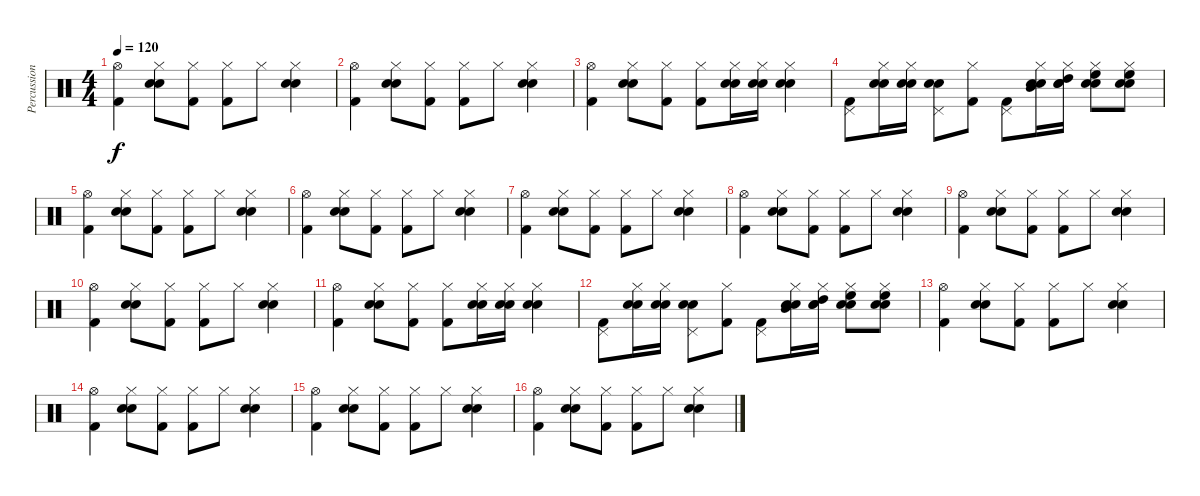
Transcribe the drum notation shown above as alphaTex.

\track ("Percussions" "Percussion") {instrument percussion}
\staff {score}
\articulation defaults
\ts (4 4)
\tempo 120
\clef neutral
\ks c
("Hi-Hat (open)" "Kick (hit) 2").4{dy f} ("Hi-Hat (closed)" "Electric Snare (hit)" "Snare (hit) 2").8 ("Hi-Hat (closed)" "Kick (hit) 2").8 ("Hi-Hat (closed)" "Kick (hit) 2").8 "Hi-Hat (closed)".8 ("Hi-Hat (closed)" "Electric Snare (hit)" "Snare (hit) 2").4 |
("Hi-Hat (open)" "Kick (hit) 2").4 ("Hi-Hat (closed)" "Electric Snare (hit)" "Snare (hit) 2").8 ("Hi-Hat (closed)" "Kick (hit) 2").8 ("Hi-Hat (closed)" "Kick (hit) 2").8 "Hi-Hat (closed)".8 ("Hi-Hat (closed)" "Electric Snare (hit)" "Snare (hit) 2").4 |
("Hi-Hat (open)" "Kick (hit) 2").4 ("Hi-Hat (closed)" "Electric Snare (hit)" "Snare (hit) 2").8 ("Hi-Hat (closed)" "Kick (hit) 2").8 ("Hi-Hat (closed)" "Kick (hit) 2").8 ("Hi-Hat (closed)" "Electric Snare (hit)" "Snare (hit) 2").16 ("Hi-Hat (closed)" "Electric Snare (hit)" "Snare (hit) 2").16 ("Hi-Hat (closed)" "Electric Snare (hit)" "Snare (hit) 2").4 |
("Pedal Hi-Hat (hit)" "Kick (hit) 2").8 ("Hi-Hat (closed)" "Electric Snare (hit)" "Snare (hit) 2").16 ("Hi-Hat (closed)" "Electric Snare (hit)" "Snare (hit) 2").16 ("Pedal Hi-Hat (hit)" "Electric Snare (hit)" "Snare (hit) 2").8 ("Hi-Hat (closed)" "Kick (hit) 2").8 ("Pedal Hi-Hat (hit)" "Kick (hit) 2").8 ("Hi-Hat (closed)" "Mid Tom (hit)" "Electric Snare (hit)" "Snare (hit) 2").16 ("Hi-Hat (closed)" "High Tom (hit)" "Electric Snare (hit)" "Snare (hit) 2").16 ("Hi-Hat (closed)" "High Floor Tom (hit)" "Electric Snare (hit)" "Snare (hit) 2").8 ("Hi-Hat (closed)" "High Floor Tom (hit)" "Electric Snare (hit)" "Snare (hit) 2").8 |
("Hi-Hat (open)" "Kick (hit) 2").4 ("Hi-Hat (closed)" "Electric Snare (hit)" "Snare (hit) 2").8 ("Hi-Hat (closed)" "Kick (hit) 2").8 ("Hi-Hat (closed)" "Kick (hit) 2").8 "Hi-Hat (closed)".8 ("Hi-Hat (closed)" "Electric Snare (hit)" "Snare (hit) 2").4 |
("Hi-Hat (open)" "Kick (hit) 2").4 ("Hi-Hat (closed)" "Electric Snare (hit)" "Snare (hit) 2").8 ("Hi-Hat (closed)" "Kick (hit) 2").8 ("Hi-Hat (closed)" "Kick (hit) 2").8 "Hi-Hat (closed)".8 ("Hi-Hat (closed)" "Electric Snare (hit)" "Snare (hit) 2").4 |
("Hi-Hat (open)" "Kick (hit) 2").4 ("Hi-Hat (closed)" "Electric Snare (hit)" "Snare (hit) 2").8 ("Hi-Hat (closed)" "Kick (hit) 2").8 ("Hi-Hat (closed)" "Kick (hit) 2").8 "Hi-Hat (closed)".8 ("Hi-Hat (closed)" "Electric Snare (hit)" "Snare (hit) 2").4 |
("Hi-Hat (open)" "Kick (hit) 2").4 ("Hi-Hat (closed)" "Electric Snare (hit)" "Snare (hit) 2").8 ("Hi-Hat (closed)" "Kick (hit) 2").8 ("Hi-Hat (closed)" "Kick (hit) 2").8 "Hi-Hat (closed)".8 ("Hi-Hat (closed)" "Electric Snare (hit)" "Snare (hit) 2").4 |
("Hi-Hat (open)" "Kick (hit) 2").4 ("Hi-Hat (closed)" "Electric Snare (hit)" "Snare (hit) 2").8 ("Hi-Hat (closed)" "Kick (hit) 2").8 ("Hi-Hat (closed)" "Kick (hit) 2").8 "Hi-Hat (closed)".8 ("Hi-Hat (closed)" "Electric Snare (hit)" "Snare (hit) 2").4 |
("Hi-Hat (open)" "Kick (hit) 2").4 ("Hi-Hat (closed)" "Electric Snare (hit)" "Snare (hit) 2").8 ("Hi-Hat (closed)" "Kick (hit) 2").8 ("Hi-Hat (closed)" "Kick (hit) 2").8 "Hi-Hat (closed)".8 ("Hi-Hat (closed)" "Electric Snare (hit)" "Snare (hit) 2").4 |
("Hi-Hat (open)" "Kick (hit) 2").4 ("Hi-Hat (closed)" "Electric Snare (hit)" "Snare (hit) 2").8 ("Hi-Hat (closed)" "Kick (hit) 2").8 ("Hi-Hat (closed)" "Kick (hit) 2").8 ("Hi-Hat (closed)" "Electric Snare (hit)" "Snare (hit) 2").16 ("Hi-Hat (closed)" "Electric Snare (hit)" "Snare (hit) 2").16 ("Hi-Hat (closed)" "Electric Snare (hit)" "Snare (hit) 2").4 |
("Pedal Hi-Hat (hit)" "Kick (hit) 2").8 ("Hi-Hat (closed)" "Electric Snare (hit)" "Snare (hit) 2").16 ("Hi-Hat (closed)" "Electric Snare (hit)" "Snare (hit) 2").16 ("Pedal Hi-Hat (hit)" "Electric Snare (hit)" "Snare (hit) 2").8 ("Hi-Hat (closed)" "Kick (hit) 2").8 ("Pedal Hi-Hat (hit)" "Kick (hit) 2").8 ("Hi-Hat (closed)" "Mid Tom (hit)" "Electric Snare (hit)" "Snare (hit) 2").16 ("Hi-Hat (closed)" "High Tom (hit)" "Electric Snare (hit)" "Snare (hit) 2").16 ("Hi-Hat (closed)" "High Floor Tom (hit)" "Electric Snare (hit)" "Snare (hit) 2").8 ("Hi-Hat (closed)" "High Floor Tom (hit)" "Electric Snare (hit)" "Snare (hit) 2").8 |
("Hi-Hat (open)" "Kick (hit) 2").4 ("Hi-Hat (closed)" "Electric Snare (hit)" "Snare (hit) 2").8 ("Hi-Hat (closed)" "Kick (hit) 2").8 ("Hi-Hat (closed)" "Kick (hit) 2").8 "Hi-Hat (closed)".8 ("Hi-Hat (closed)" "Electric Snare (hit)" "Snare (hit) 2").4 |
("Hi-Hat (open)" "Kick (hit) 2").4 ("Hi-Hat (closed)" "Electric Snare (hit)" "Snare (hit) 2").8 ("Hi-Hat (closed)" "Kick (hit) 2").8 ("Hi-Hat (closed)" "Kick (hit) 2").8 "Hi-Hat (closed)".8 ("Hi-Hat (closed)" "Electric Snare (hit)" "Snare (hit) 2").4 |
("Hi-Hat (open)" "Kick (hit) 2").4 ("Hi-Hat (closed)" "Electric Snare (hit)" "Snare (hit) 2").8 ("Hi-Hat (closed)" "Kick (hit) 2").8 ("Hi-Hat (closed)" "Kick (hit) 2").8 "Hi-Hat (closed)".8 ("Hi-Hat (closed)" "Electric Snare (hit)" "Snare (hit) 2").4 |
("Hi-Hat (open)" "Kick (hit) 2").4 ("Hi-Hat (closed)" "Electric Snare (hit)" "Snare (hit) 2").8 ("Hi-Hat (closed)" "Kick (hit) 2").8 ("Hi-Hat (closed)" "Kick (hit) 2").8 "Hi-Hat (closed)".8 ("Hi-Hat (closed)" "Electric Snare (hit)" "Snare (hit) 2").4
